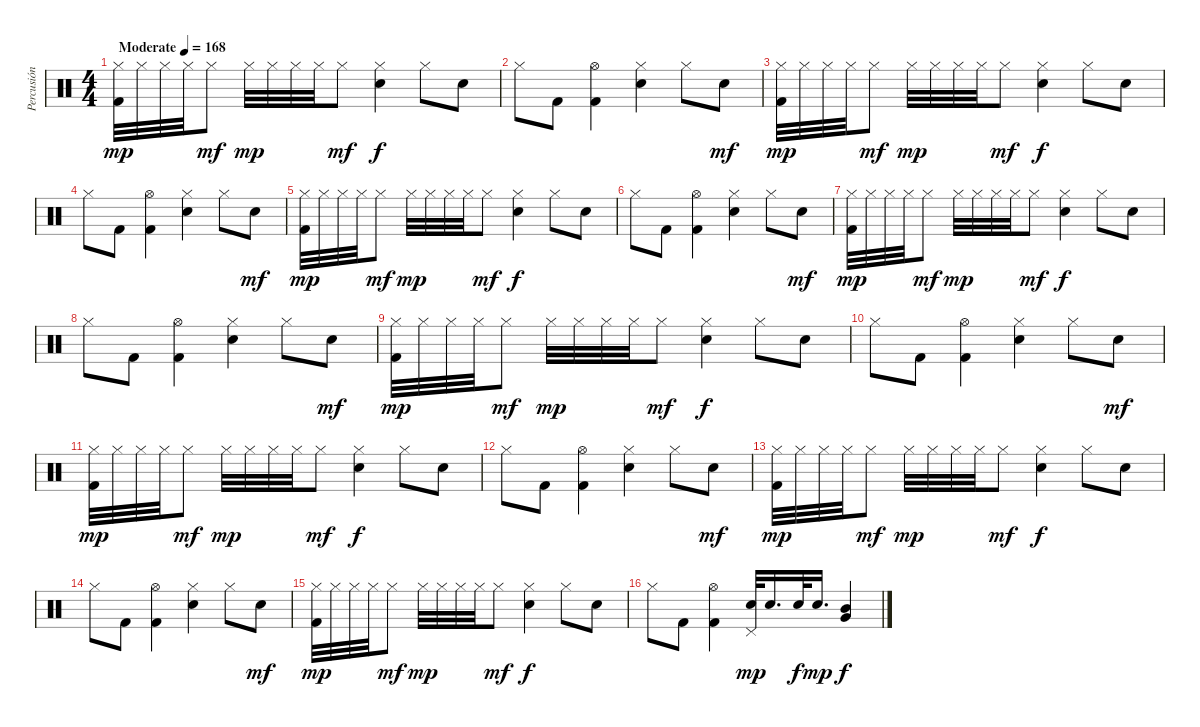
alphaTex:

\track ("Percusión" "Percusión") {instrument percussion}
\staff {score}
\articulation defaults
\ts (4 4)
\tempo (168 "Moderate")
\clef neutral
\ks c
("Hi-Hat (closed)" "Kick (hit) 2").32{dy mp} "Hi-Hat (closed)".32 "Hi-Hat (closed)".32 "Hi-Hat (closed)".32 "Hi-Hat (closed)".8{dy mf} "Hi-Hat (closed)".32{dy mp} "Hi-Hat (closed)".32 "Hi-Hat (closed)".32 "Hi-Hat (closed)".32 "Hi-Hat (closed)".8{dy mf} ("Hi-Hat (closed)" "Electric Snare (hit)").4{dy f} "Hi-Hat (closed)".8 "Electric Snare (hit)".8 |
"Hi-Hat (closed)".8 "Kick (hit) 2".8 ("Hi-Hat (open)" "Kick (hit) 2").4 ("Hi-Hat (closed)" "Electric Snare (hit)").4 "Hi-Hat (closed)".8 "Electric Snare (hit)".8{dy mf} |
("Hi-Hat (closed)" "Kick (hit) 2").32{dy mp} "Hi-Hat (closed)".32 "Hi-Hat (closed)".32 "Hi-Hat (closed)".32 "Hi-Hat (closed)".8{dy mf} "Hi-Hat (closed)".32{dy mp} "Hi-Hat (closed)".32 "Hi-Hat (closed)".32 "Hi-Hat (closed)".32 "Hi-Hat (closed)".8{dy mf} ("Hi-Hat (closed)" "Electric Snare (hit)").4{dy f} "Hi-Hat (closed)".8 "Electric Snare (hit)".8 |
"Hi-Hat (closed)".8 "Kick (hit) 2".8 ("Hi-Hat (open)" "Kick (hit) 2").4 ("Hi-Hat (closed)" "Electric Snare (hit)").4 "Hi-Hat (closed)".8 "Electric Snare (hit)".8{dy mf} |
("Hi-Hat (closed)" "Kick (hit) 2").32{dy mp} "Hi-Hat (closed)".32 "Hi-Hat (closed)".32 "Hi-Hat (closed)".32 "Hi-Hat (closed)".8{dy mf} "Hi-Hat (closed)".32{dy mp} "Hi-Hat (closed)".32 "Hi-Hat (closed)".32 "Hi-Hat (closed)".32 "Hi-Hat (closed)".8{dy mf} ("Hi-Hat (closed)" "Electric Snare (hit)").4{dy f} "Hi-Hat (closed)".8 "Electric Snare (hit)".8 |
"Hi-Hat (closed)".8 "Kick (hit) 2".8 ("Hi-Hat (open)" "Kick (hit) 2").4 ("Hi-Hat (closed)" "Electric Snare (hit)").4 "Hi-Hat (closed)".8 "Electric Snare (hit)".8{dy mf} |
("Hi-Hat (closed)" "Kick (hit) 2").32{dy mp} "Hi-Hat (closed)".32 "Hi-Hat (closed)".32 "Hi-Hat (closed)".32 "Hi-Hat (closed)".8{dy mf} "Hi-Hat (closed)".32{dy mp} "Hi-Hat (closed)".32 "Hi-Hat (closed)".32 "Hi-Hat (closed)".32 "Hi-Hat (closed)".8{dy mf} ("Hi-Hat (closed)" "Electric Snare (hit)").4{dy f} "Hi-Hat (closed)".8 "Electric Snare (hit)".8 |
"Hi-Hat (closed)".8 "Kick (hit) 2".8 ("Hi-Hat (open)" "Kick (hit) 2").4 ("Hi-Hat (closed)" "Electric Snare (hit)").4 "Hi-Hat (closed)".8 "Electric Snare (hit)".8{dy mf} |
("Hi-Hat (closed)" "Kick (hit) 2").32{dy mp} "Hi-Hat (closed)".32 "Hi-Hat (closed)".32 "Hi-Hat (closed)".32 "Hi-Hat (closed)".8{dy mf} "Hi-Hat (closed)".32{dy mp} "Hi-Hat (closed)".32 "Hi-Hat (closed)".32 "Hi-Hat (closed)".32 "Hi-Hat (closed)".8{dy mf} ("Hi-Hat (closed)" "Electric Snare (hit)").4{dy f} "Hi-Hat (closed)".8 "Electric Snare (hit)".8 |
"Hi-Hat (closed)".8 "Kick (hit) 2".8 ("Hi-Hat (open)" "Kick (hit) 2").4 ("Hi-Hat (closed)" "Electric Snare (hit)").4 "Hi-Hat (closed)".8 "Electric Snare (hit)".8{dy mf} |
("Hi-Hat (closed)" "Kick (hit) 2").32{dy mp} "Hi-Hat (closed)".32 "Hi-Hat (closed)".32 "Hi-Hat (closed)".32 "Hi-Hat (closed)".8{dy mf} "Hi-Hat (closed)".32{dy mp} "Hi-Hat (closed)".32 "Hi-Hat (closed)".32 "Hi-Hat (closed)".32 "Hi-Hat (closed)".8{dy mf} ("Hi-Hat (closed)" "Electric Snare (hit)").4{dy f} "Hi-Hat (closed)".8 "Electric Snare (hit)".8 |
"Hi-Hat (closed)".8 "Kick (hit) 2".8 ("Hi-Hat (open)" "Kick (hit) 2").4 ("Hi-Hat (closed)" "Electric Snare (hit)").4 "Hi-Hat (closed)".8 "Electric Snare (hit)".8{dy mf} |
("Hi-Hat (closed)" "Kick (hit) 2").32{dy mp} "Hi-Hat (closed)".32 "Hi-Hat (closed)".32 "Hi-Hat (closed)".32 "Hi-Hat (closed)".8{dy mf} "Hi-Hat (closed)".32{dy mp} "Hi-Hat (closed)".32 "Hi-Hat (closed)".32 "Hi-Hat (closed)".32 "Hi-Hat (closed)".8{dy mf} ("Hi-Hat (closed)" "Electric Snare (hit)").4{dy f} "Hi-Hat (closed)".8 "Electric Snare (hit)".8 |
"Hi-Hat (closed)".8 "Kick (hit) 2".8 ("Hi-Hat (open)" "Kick (hit) 2").4 ("Hi-Hat (closed)" "Electric Snare (hit)").4 "Hi-Hat (closed)".8 "Electric Snare (hit)".8{dy mf} |
("Hi-Hat (closed)" "Kick (hit) 2").32{dy mp} "Hi-Hat (closed)".32 "Hi-Hat (closed)".32 "Hi-Hat (closed)".32 "Hi-Hat (closed)".8{dy mf} "Hi-Hat (closed)".32{dy mp} "Hi-Hat (closed)".32 "Hi-Hat (closed)".32 "Hi-Hat (closed)".32 "Hi-Hat (closed)".8{dy mf} ("Hi-Hat (closed)" "Electric Snare (hit)").4{dy f} "Hi-Hat (closed)".8 "Electric Snare (hit)".8 |
"Hi-Hat (closed)".8 "Kick (hit) 2".8 ("Hi-Hat (open)" "Kick (hit) 2").4 ("Pedal Hi-Hat (hit)" "Electric Snare (hit)").32{dy mp} "Electric Snare (hit)".16{d} "Electric Snare (hit)".32{dy f} "Electric Snare (hit)".16{d dy mp} ("Mid Tom (hit)" "Very Low Tom (hit)").4{dy f}
